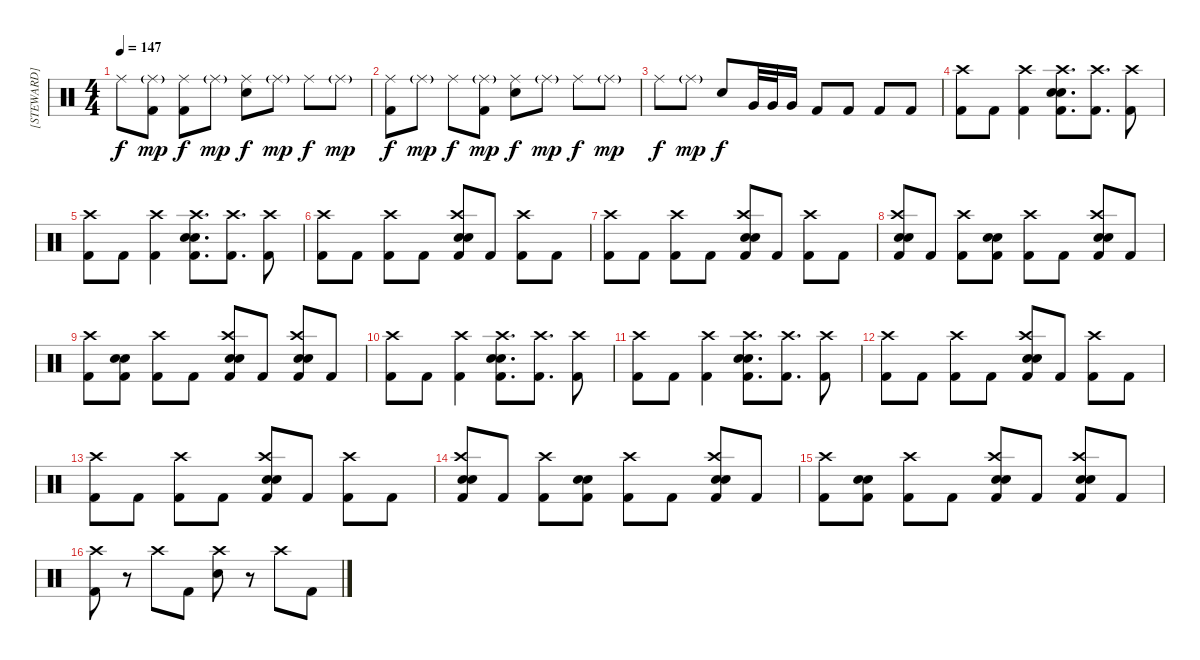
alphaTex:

\track ("[STEWARD]" "[STEWARD]") {instrument percussion}
\staff {score}
\articulation defaults
\ts (4 4)
\tempo 147
\clef neutral
\ks c "Ride (middle)".8{dy f}
("Ride (middle)"{g} "Kick (hit) 2").8{dy mp} ("Ride (middle)" "Kick (hit) 2").8{dy f} "Ride (middle)"{g}.8{dy mp} ("Ride (middle)" "Snare (hit) 2").8{dy f} "Ride (middle)"{g}.8{dy mp} "Ride (middle)".8{dy f} "Ride (middle)"{g}.8{dy mp} |
("Ride (middle)" "Kick (hit) 2").8{dy f} "Ride (middle)"{g}.8{dy mp} "Ride (middle)".8{dy f} ("Ride (middle)"{g} "Kick (hit) 2").8{dy mp} ("Ride (middle)" "Snare (hit) 2").8{dy f} "Ride (middle)"{g}.8{dy mp} "Ride (middle)".8{dy f} "Ride (middle)"{g}.8{dy mp} |
"Ride (middle)".8{dy f} "Ride (middle)"{g}.8{dy mp} "Snare (hit) 2".8{dy f} "Very Low Tom (hit)".32 "Very Low Tom (hit)".32 "Very Low Tom (hit)".16 "Kick (hit) 2".8 "Kick (hit) 2".8 "Kick (hit) 2".8 "Kick (hit) 2".8 |
("Crash high (hit)" "Kick (hit) 2").8 "Kick (hit) 2".8 ("Crash high (hit)" "Kick (hit) 2").4 ("Crash high (hit)" "Electric Snare (hit)" "Snare (hit) 2" "Kick (hit) 2").8{d} ("Crash high (hit)" "Kick (hit) 2").8{d} ("Crash high (hit)" "Kick (hit) 2").8 |
("Crash high (hit)" "Kick (hit) 2").8 "Kick (hit) 2".8 ("Crash high (hit)" "Kick (hit) 2").4 ("Crash high (hit)" "Snare (hit) 2" "Electric Snare (hit)" "Kick (hit) 2").8{d} ("Crash high (hit)" "Kick (hit) 2").8{d} ("Crash high (hit)" "Kick (hit) 2").8 |
("Crash high (hit)" "Kick (hit) 2").8 "Kick (hit) 2".8 ("Crash high (hit)" "Kick (hit) 2").8 "Kick (hit) 2".8 ("Crash high (hit)" "Snare (hit) 2" "Electric Snare (hit)" "Kick (hit) 2").8 "Kick (hit) 2".8 ("Crash high (hit)" "Kick (hit) 2").8 "Kick (hit) 2".8 |
("Crash high (hit)" "Kick (hit) 2").8 "Kick (hit) 2".8 ("Crash high (hit)" "Kick (hit) 2").8 "Kick (hit) 2".8 ("Crash high (hit)" "Electric Snare (hit)" "Snare (hit) 2" "Kick (hit) 2").8 "Kick (hit) 2".8 ("Crash high (hit)" "Kick (hit) 2").8 "Kick (hit) 2".8 |
("Crash high (hit)" "Snare (hit) 2" "Electric Snare (hit)" "Kick (hit) 2").8 "Kick (hit) 2".8 ("Crash high (hit)" "Kick (hit) 2").8 ("Snare (hit) 2" "Electric Snare (hit)" "Kick (hit) 2").8 ("Crash high (hit)" "Kick (hit) 2").8 "Kick (hit) 2".8 ("Crash high (hit)" "Snare (hit) 2" "Electric Snare (hit)" "Kick (hit) 2").8 "Kick (hit) 2".8 |
("Crash high (hit)" "Kick (hit) 2").8 ("Snare (hit) 2" "Electric Snare (hit)" "Kick (hit) 2").8 ("Crash high (hit)" "Kick (hit) 2").8 "Kick (hit) 2".8 ("Crash high (hit)" "Snare (hit) 2" "Electric Snare (hit)" "Kick (hit) 2").8 "Kick (hit) 2".8 ("Crash high (hit)" "Snare (hit) 2" "Electric Snare (hit)" "Kick (hit) 2").8 "Kick (hit) 2".8 |
("Crash high (hit)" "Kick (hit) 2").8 "Kick (hit) 2".8 ("Crash high (hit)" "Kick (hit) 2").4 ("Crash high (hit)" "Electric Snare (hit)" "Snare (hit) 2" "Kick (hit) 2").8{d} ("Crash high (hit)" "Kick (hit) 2").8{d} ("Crash high (hit)" "Kick (hit) 2").8 |
("Crash high (hit)" "Kick (hit) 2").8 "Kick (hit) 2".8 ("Crash high (hit)" "Kick (hit) 2").4 ("Crash high (hit)" "Snare (hit) 2" "Electric Snare (hit)" "Kick (hit) 2").8{d} ("Crash high (hit)" "Kick (hit) 2").8{d} ("Crash high (hit)" "Kick (hit) 2").8 |
("Crash high (hit)" "Kick (hit) 2").8 "Kick (hit) 2".8 ("Crash high (hit)" "Kick (hit) 2").8 "Kick (hit) 2".8 ("Crash high (hit)" "Snare (hit) 2" "Electric Snare (hit)" "Kick (hit) 2").8 "Kick (hit) 2".8 ("Crash high (hit)" "Kick (hit) 2").8 "Kick (hit) 2".8 |
("Crash high (hit)" "Kick (hit) 2").8 "Kick (hit) 2".8 ("Crash high (hit)" "Kick (hit) 2").8 "Kick (hit) 2".8 ("Crash high (hit)" "Electric Snare (hit)" "Snare (hit) 2" "Kick (hit) 2").8 "Kick (hit) 2".8 ("Crash high (hit)" "Kick (hit) 2").8 "Kick (hit) 2".8 |
("Crash high (hit)" "Snare (hit) 2" "Electric Snare (hit)" "Kick (hit) 2").8 "Kick (hit) 2".8 ("Crash high (hit)" "Kick (hit) 2").8 ("Snare (hit) 2" "Electric Snare (hit)" "Kick (hit) 2").8 ("Crash high (hit)" "Kick (hit) 2").8 "Kick (hit) 2".8 ("Crash high (hit)" "Snare (hit) 2" "Electric Snare (hit)" "Kick (hit) 2").8 "Kick (hit) 2".8 |
("Crash high (hit)" "Kick (hit) 2").8 ("Snare (hit) 2" "Electric Snare (hit)" "Kick (hit) 2").8 ("Crash high (hit)" "Kick (hit) 2").8 "Kick (hit) 2".8 ("Crash high (hit)" "Snare (hit) 2" "Electric Snare (hit)" "Kick (hit) 2").8 "Kick (hit) 2".8 ("Crash high (hit)" "Snare (hit) 2" "Electric Snare (hit)" "Kick (hit) 2").8 "Kick (hit) 2".8 |
("Crash high (hit)" "Kick (hit) 2").8 r.8 "Crash high (hit)".8 "Kick (hit) 2".8 ("Crash high (hit)" "Electric Snare (hit)").8 r.8 "Crash high (hit)".8 "Kick (hit) 2".8
